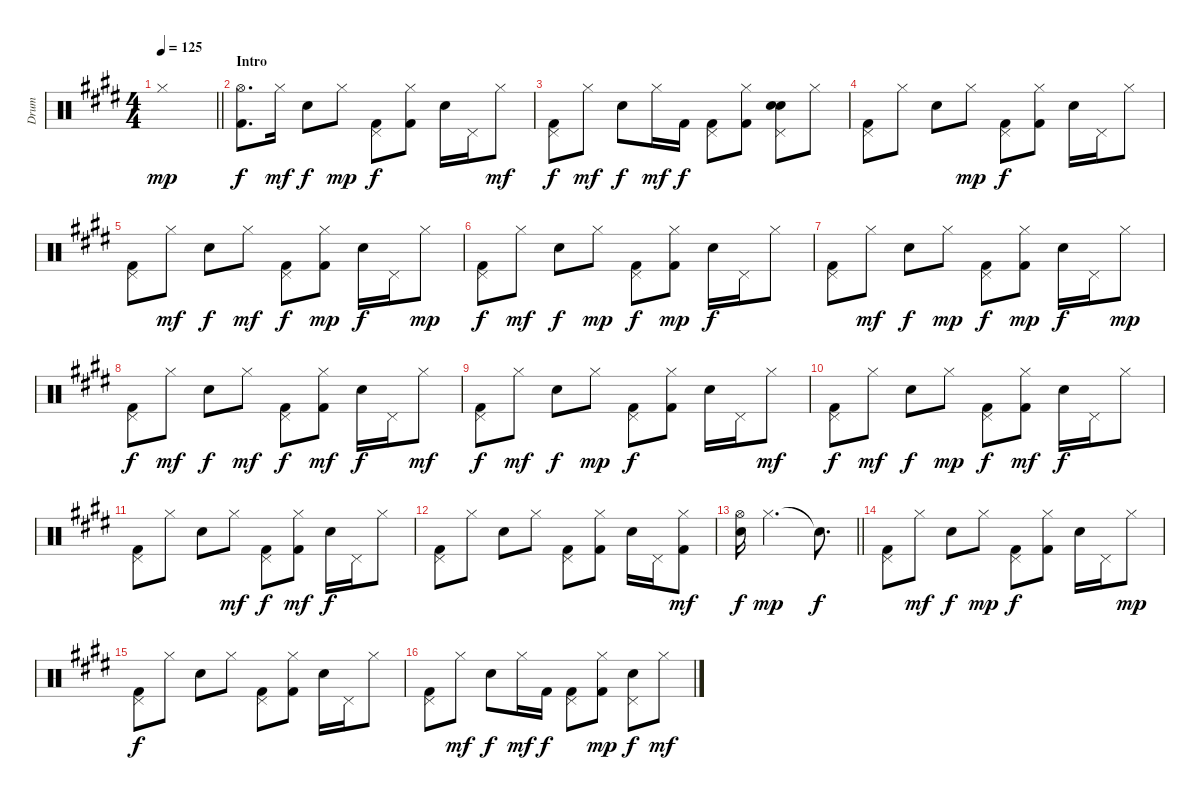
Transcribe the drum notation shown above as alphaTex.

\track ("Drum" "Drum") {instrument percussion}
\staff {score}
\articulation defaults
\ts (4 4)
\tempo 125
\clef neutral
\barLineRight lightlight
\ks e "Hi-Hat (closed)".1{dy mp}
|
\section ("" "Intro")
("Kick (hit) 2" "Hi-Hat (open)").8{d dy f} "Hi-Hat (closed)".16{dy mf} "Snare (hit) 2".8{dy f} "Hi-Hat (closed)".8{dy mp} ("Kick (hit) 2" "Pedal Hi-Hat (hit)").8{dy f} ("Kick (hit) 2" "Hi-Hat (closed)").8 "Snare (hit) 2".16 "Pedal Hi-Hat (hit)".16 "Hi-Hat (closed)".8{dy mf} |
("Kick (hit) 2" "Pedal Hi-Hat (hit)").8{dy f} "Hi-Hat (closed)".8{dy mf} "Snare (hit) 2".8{dy f} "Hi-Hat (closed)".16{dy mf} "Kick (hit) 2".16{dy f} ("Kick (hit) 2" "Pedal Hi-Hat (hit)").8 ("Kick (hit) 2" "Hi-Hat (closed)").8 ("Snare (hit) 2" "Electric Snare (hit)" "Pedal Hi-Hat (hit)").8 "Hi-Hat (closed)".8 |
("Kick (hit) 2" "Pedal Hi-Hat (hit)").8 "Hi-Hat (closed)".8 "Snare (hit) 2".8 "Hi-Hat (closed)".8{dy mp} ("Kick (hit) 2" "Pedal Hi-Hat (hit)").8{dy f} ("Kick (hit) 2" "Hi-Hat (closed)").8 "Snare (hit) 2".16 "Pedal Hi-Hat (hit)".16 "Hi-Hat (closed)".8 |
("Kick (hit) 2" "Pedal Hi-Hat (hit)").8 "Hi-Hat (closed)".8{dy mf} "Snare (hit) 2".8{dy f} "Hi-Hat (closed)".8{dy mf} ("Kick (hit) 2" "Pedal Hi-Hat (hit)").8{dy f} ("Kick (hit) 2" "Hi-Hat (closed)").8{dy mp} "Snare (hit) 2".16{dy f} "Pedal Hi-Hat (hit)".16 "Hi-Hat (closed)".8{dy mp} |
("Kick (hit) 2" "Pedal Hi-Hat (hit)").8{dy f} "Hi-Hat (closed)".8{dy mf} "Snare (hit) 2".8{dy f} "Hi-Hat (closed)".8{dy mp} ("Kick (hit) 2" "Pedal Hi-Hat (hit)").8{dy f} ("Kick (hit) 2" "Hi-Hat (closed)").8{dy mp} "Snare (hit) 2".16{dy f} "Pedal Hi-Hat (hit)".16 "Hi-Hat (closed)".8 |
("Kick (hit) 2" "Pedal Hi-Hat (hit)").8 "Hi-Hat (closed)".8{dy mf} "Snare (hit) 2".8{dy f} "Hi-Hat (closed)".8{dy mp} ("Kick (hit) 2" "Pedal Hi-Hat (hit)").8{dy f} ("Kick (hit) 2" "Hi-Hat (closed)").8{dy mp} "Snare (hit) 2".16{dy f} "Pedal Hi-Hat (hit)".16 "Hi-Hat (closed)".8{dy mp} |
("Kick (hit) 2" "Pedal Hi-Hat (hit)").8{dy f} "Hi-Hat (closed)".8{dy mf} "Snare (hit) 2".8{dy f} "Hi-Hat (closed)".8{dy mf} ("Kick (hit) 2" "Pedal Hi-Hat (hit)").8{dy f} ("Kick (hit) 2" "Hi-Hat (closed)").8{dy mf} "Snare (hit) 2".16{dy f} "Pedal Hi-Hat (hit)".16 "Hi-Hat (closed)".8{dy mf} |
("Kick (hit) 2" "Pedal Hi-Hat (hit)").8{dy f} "Hi-Hat (closed)".8{dy mf} "Snare (hit) 2".8{dy f} "Hi-Hat (closed)".8{dy mp} ("Kick (hit) 2" "Pedal Hi-Hat (hit)").8{dy f} ("Kick (hit) 2" "Hi-Hat (closed)").8 "Snare (hit) 2".16 "Pedal Hi-Hat (hit)".16 "Hi-Hat (closed)".8{dy mf} |
("Kick (hit) 2" "Pedal Hi-Hat (hit)").8{dy f} "Hi-Hat (closed)".8{dy mf} "Snare (hit) 2".8{dy f} "Hi-Hat (closed)".8{dy mp} ("Kick (hit) 2" "Pedal Hi-Hat (hit)").8{dy f} ("Kick (hit) 2" "Hi-Hat (closed)").8{dy mf} "Snare (hit) 2".16{dy f} "Pedal Hi-Hat (hit)".16 "Hi-Hat (closed)".8 |
("Kick (hit) 2" "Pedal Hi-Hat (hit)").8 "Hi-Hat (closed)".8 "Snare (hit) 2".8 "Hi-Hat (closed)".8{dy mf} ("Kick (hit) 2" "Pedal Hi-Hat (hit)").8{dy f} ("Kick (hit) 2" "Hi-Hat (closed)").8{dy mf} "Snare (hit) 2".16{dy f} "Pedal Hi-Hat (hit)".16 "Hi-Hat (closed)".8 |
("Kick (hit) 2" "Pedal Hi-Hat (hit)").8 "Hi-Hat (closed)".8 "Snare (hit) 2".8 "Hi-Hat (closed)".8 ("Kick (hit) 2" "Pedal Hi-Hat (hit)").8 ("Kick (hit) 2" "Hi-Hat (closed)").8 "Snare (hit) 2".16 "Pedal Hi-Hat (hit)".16 ("Kick (hit) 2" "Hi-Hat (closed)").8{dy mf} |
\barLineRight lightlight
("Snare (hit) 2" "Hi-Hat (open)").16{dy f} "Hi-Hat (closed)".2{d dy mp} "Snare (hit)"{t}.8{d dy f} |
("Kick (hit) 2" "Pedal Hi-Hat (hit)").8 "Hi-Hat (closed)".8{dy mf} "Snare (hit) 2".8{dy f} "Hi-Hat (closed)".8{dy mp} ("Kick (hit) 2" "Pedal Hi-Hat (hit)").8{dy f} ("Kick (hit) 2" "Hi-Hat (closed)").8 "Snare (hit) 2".16 "Pedal Hi-Hat (hit)".16 "Hi-Hat (closed)".8{dy mp} |
("Kick (hit) 2" "Pedal Hi-Hat (hit)").8{dy f} "Hi-Hat (closed)".8 "Snare (hit) 2".8 "Hi-Hat (closed)".8 ("Kick (hit) 2" "Pedal Hi-Hat (hit)").8 ("Kick (hit) 2" "Hi-Hat (closed)").8 "Snare (hit) 2".16 "Pedal Hi-Hat (hit)".16 "Hi-Hat (closed)".8 |
("Kick (hit) 2" "Pedal Hi-Hat (hit)").8 "Hi-Hat (closed)".8{dy mf} "Snare (hit) 2".8{dy f} "Hi-Hat (closed)".16{dy mf} "Kick (hit) 2".16{dy f} ("Kick (hit) 2" "Pedal Hi-Hat (hit)").8 ("Kick (hit) 2" "Hi-Hat (closed)").8{dy mp} ("Snare (hit) 2" "Pedal Hi-Hat (hit)").8{dy f} "Hi-Hat (closed)".8{dy mf}
